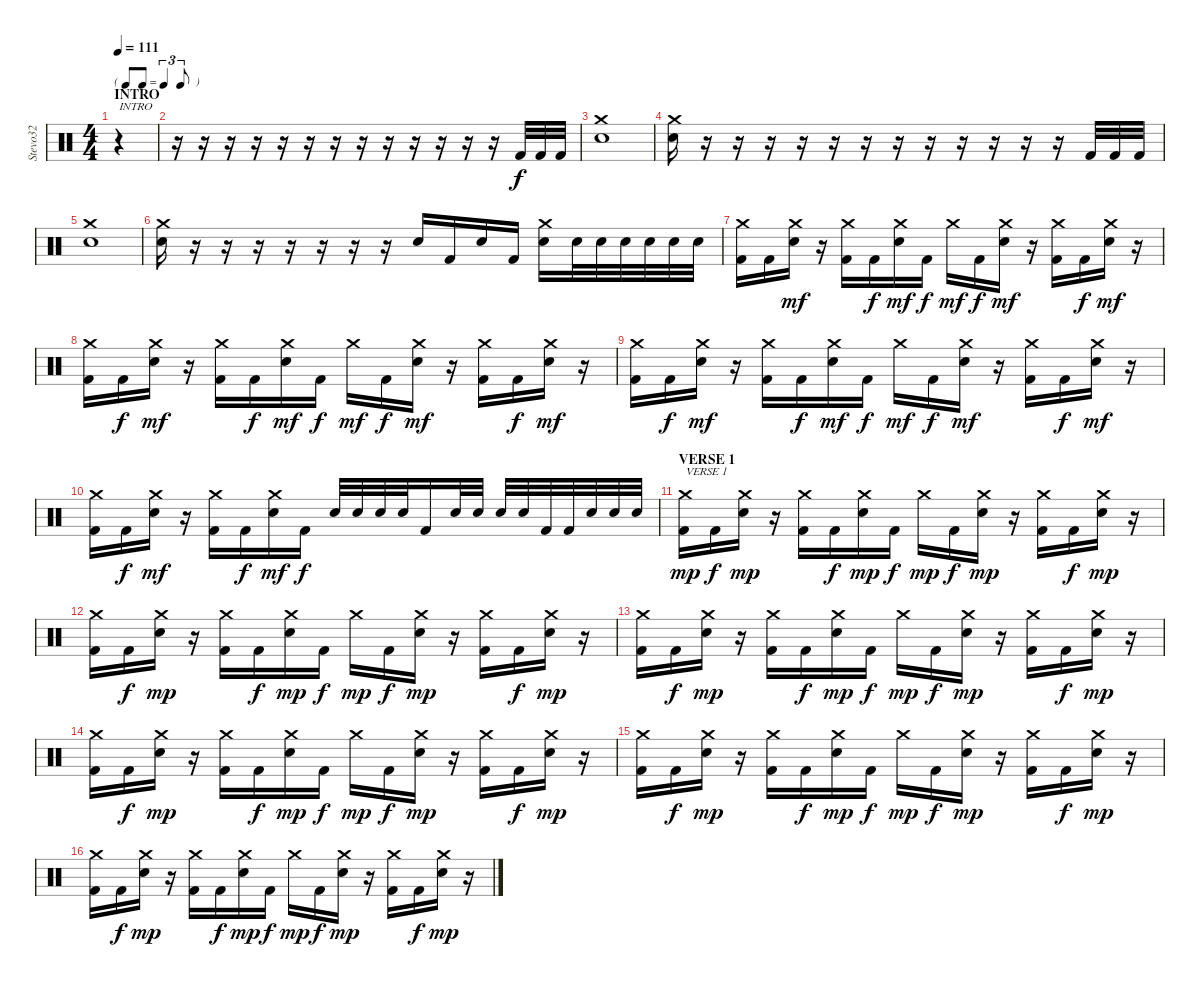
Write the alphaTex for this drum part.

\track ("Stevo32" "Stevo32") {instrument percussion}
\staff {score}
\articulation defaults
\ts (4 4)
\tf triplet8th
\section ("" "INTRO")
\tempo 111
\clef neutral
\ks c
r.4{txt "INTRO" dy f} |
r.16 r.16 r.16 r.16 r.16 r.16 r.16 r.16 r.16 r.16 r.16 r.16 r.16 "Kick (hit) 2".32 "Kick (hit) 2".32 "Kick (hit) 2".32 |
("Crash medium (hit)" "Electric Snare (hit)").1 |
("Crash medium (hit)" "Electric Snare (hit)").16 r.16 r.16 r.16 r.16 r.16 r.16 r.16 r.16 r.16 r.16 r.16 r.16 "Kick (hit) 2".32 "Kick (hit) 2".32 "Kick (hit) 2".32 |
("Crash medium (hit)" "Electric Snare (hit)").1 |
("Crash medium (hit)" "Electric Snare (hit)").16 r.16 r.16 r.16 r.16 r.16 r.16 r.16 "Electric Snare (hit)".16 "Kick (hit) 2".16 "Electric Snare (hit)".16 "Kick (hit) 2".16 ("Crash medium (hit)" "Electric Snare (hit)").16 "Electric Snare (hit)".32 "Electric Snare (hit)".32 "Electric Snare (hit)".32 "Electric Snare (hit)".32 "Electric Snare (hit)".32 "Electric Snare (hit)".32 |
("Crash medium (hit)" "Kick (hit) 2").16 "Kick (hit) 2".16 ("Crash medium (hit)" "Electric Snare (hit)").16{dy mf} r.16 ("Crash medium (hit)" "Kick (hit) 2").16 "Kick (hit) 2".16{dy f} ("Crash medium (hit)" "Electric Snare (hit)").16{dy mf} "Kick (hit) 2".16{dy f} "Crash medium (hit)".16{dy mf} "Kick (hit) 2".16{dy f} ("Crash medium (hit)" "Electric Snare (hit)").16{dy mf} r.16 ("Crash medium (hit)" "Kick (hit) 2").16 "Kick (hit) 2".16{dy f} ("Crash medium (hit)" "Electric Snare (hit)").16{dy mf} r.16 |
("Crash medium (hit)" "Kick (hit) 2").16 "Kick (hit) 2".16{dy f} ("Crash medium (hit)" "Electric Snare (hit)").16{dy mf} r.16 ("Crash medium (hit)" "Kick (hit) 2").16 "Kick (hit) 2".16{dy f} ("Crash medium (hit)" "Electric Snare (hit)").16{dy mf} "Kick (hit) 2".16{dy f} "Crash medium (hit)".16{dy mf} "Kick (hit) 2".16{dy f} ("Crash medium (hit)" "Electric Snare (hit)").16{dy mf} r.16 ("Crash medium (hit)" "Kick (hit) 2").16 "Kick (hit) 2".16{dy f} ("Crash medium (hit)" "Electric Snare (hit)").16{dy mf} r.16 |
("Crash medium (hit)" "Kick (hit) 2").16 "Kick (hit) 2".16{dy f} ("Crash medium (hit)" "Electric Snare (hit)").16{dy mf} r.16 ("Crash medium (hit)" "Kick (hit) 2").16 "Kick (hit) 2".16{dy f} ("Crash medium (hit)" "Electric Snare (hit)").16{dy mf} "Kick (hit) 2".16{dy f} "Crash medium (hit)".16{dy mf} "Kick (hit) 2".16{dy f} ("Crash medium (hit)" "Electric Snare (hit)").16{dy mf} r.16 ("Crash medium (hit)" "Kick (hit) 2").16 "Kick (hit) 2".16{dy f} ("Crash medium (hit)" "Electric Snare (hit)").16{dy mf} r.16 |
("Crash medium (hit)" "Kick (hit) 2").16 "Kick (hit) 2".16{dy f} ("Crash medium (hit)" "Electric Snare (hit)").16{dy mf} r.16 ("Crash medium (hit)" "Kick (hit) 2").16 "Kick (hit) 2".16{dy f} ("Crash medium (hit)" "Electric Snare (hit)").16{dy mf} "Kick (hit) 2".16{dy f} "Electric Snare (hit)".32 "Electric Snare (hit)".32 "Electric Snare (hit)".32 "Electric Snare (hit)".32 "Kick (hit) 2".16 "Electric Snare (hit)".32 "Electric Snare (hit)".32 "Electric Snare (hit)".32 "Electric Snare (hit)".32 "Kick (hit) 2".32 "Kick (hit) 2".32 "Electric Snare (hit)".32 "Electric Snare (hit)".32 "Electric Snare (hit)".32 |
\section ("" "VERSE 1")
("Crash medium (hit)" "Kick (hit) 2").16{txt "VERSE 1" dy mp} "Kick (hit) 2".16{dy f} ("Crash medium (hit)" "Electric Snare (hit)").16{dy mp} r.16 ("Crash medium (hit)" "Kick (hit) 2").16 "Kick (hit) 2".16{dy f} ("Crash medium (hit)" "Electric Snare (hit)").16{dy mp} "Kick (hit) 2".16{dy f} "Crash medium (hit)".16{dy mp} "Kick (hit) 2".16{dy f} ("Crash medium (hit)" "Electric Snare (hit)").16{dy mp} r.16 ("Crash medium (hit)" "Kick (hit) 2").16 "Kick (hit) 2".16{dy f} ("Crash medium (hit)" "Electric Snare (hit)").16{dy mp} r.16 |
("Crash medium (hit)" "Kick (hit) 2").16 "Kick (hit) 2".16{dy f} ("Crash medium (hit)" "Electric Snare (hit)").16{dy mp} r.16 ("Crash medium (hit)" "Kick (hit) 2").16 "Kick (hit) 2".16{dy f} ("Crash medium (hit)" "Electric Snare (hit)").16{dy mp} "Kick (hit) 2".16{dy f} "Crash medium (hit)".16{dy mp} "Kick (hit) 2".16{dy f} ("Crash medium (hit)" "Electric Snare (hit)").16{dy mp} r.16 ("Crash medium (hit)" "Kick (hit) 2").16 "Kick (hit) 2".16{dy f} ("Crash medium (hit)" "Electric Snare (hit)").16{dy mp} r.16 |
("Crash medium (hit)" "Kick (hit) 2").16 "Kick (hit) 2".16{dy f} ("Crash medium (hit)" "Electric Snare (hit)").16{dy mp} r.16 ("Crash medium (hit)" "Kick (hit) 2").16 "Kick (hit) 2".16{dy f} ("Crash medium (hit)" "Electric Snare (hit)").16{dy mp} "Kick (hit) 2".16{dy f} "Crash medium (hit)".16{dy mp} "Kick (hit) 2".16{dy f} ("Crash medium (hit)" "Electric Snare (hit)").16{dy mp} r.16 ("Crash medium (hit)" "Kick (hit) 2").16 "Kick (hit) 2".16{dy f} ("Crash medium (hit)" "Electric Snare (hit)").16{dy mp} r.16 |
("Crash medium (hit)" "Kick (hit) 2").16 "Kick (hit) 2".16{dy f} ("Crash medium (hit)" "Electric Snare (hit)").16{dy mp} r.16 ("Crash medium (hit)" "Kick (hit) 2").16 "Kick (hit) 2".16{dy f} ("Crash medium (hit)" "Electric Snare (hit)").16{dy mp} "Kick (hit) 2".16{dy f} "Crash medium (hit)".16{dy mp} "Kick (hit) 2".16{dy f} ("Crash medium (hit)" "Electric Snare (hit)").16{dy mp} r.16 ("Crash medium (hit)" "Kick (hit) 2").16 "Kick (hit) 2".16{dy f} ("Crash medium (hit)" "Electric Snare (hit)").16{dy mp} r.16 |
("Crash medium (hit)" "Kick (hit) 2").16 "Kick (hit) 2".16{dy f} ("Crash medium (hit)" "Electric Snare (hit)").16{dy mp} r.16 ("Crash medium (hit)" "Kick (hit) 2").16 "Kick (hit) 2".16{dy f} ("Crash medium (hit)" "Electric Snare (hit)").16{dy mp} "Kick (hit) 2".16{dy f} "Crash medium (hit)".16{dy mp} "Kick (hit) 2".16{dy f} ("Crash medium (hit)" "Electric Snare (hit)").16{dy mp} r.16 ("Crash medium (hit)" "Kick (hit) 2").16 "Kick (hit) 2".16{dy f} ("Crash medium (hit)" "Electric Snare (hit)").16{dy mp} r.16 |
("Crash medium (hit)" "Kick (hit) 2").16 "Kick (hit) 2".16{dy f} ("Crash medium (hit)" "Electric Snare (hit)").16{dy mp} r.16 ("Crash medium (hit)" "Kick (hit) 2").16 "Kick (hit) 2".16{dy f} ("Crash medium (hit)" "Electric Snare (hit)").16{dy mp} "Kick (hit) 2".16{dy f} "Crash medium (hit)".16{dy mp} "Kick (hit) 2".16{dy f} ("Crash medium (hit)" "Electric Snare (hit)").16{dy mp} r.16 ("Crash medium (hit)" "Kick (hit) 2").16 "Kick (hit) 2".16{dy f} ("Crash medium (hit)" "Electric Snare (hit)").16{dy mp} r.16
